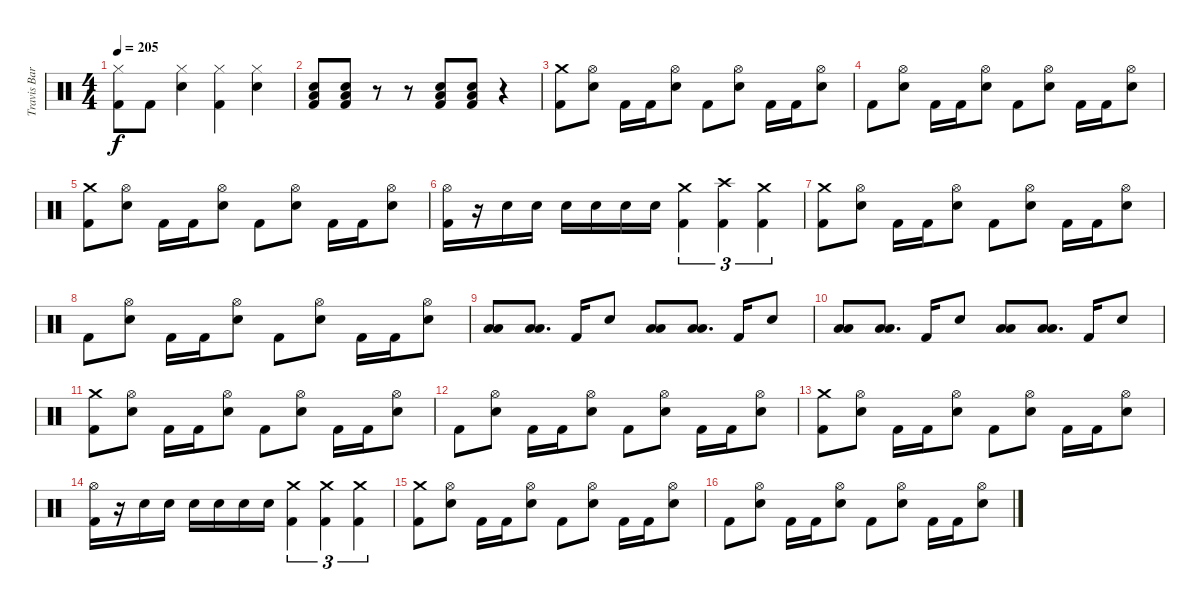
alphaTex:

\track ("Travis Barker (Drums)" "Travis Bar") {instrument percussion}
\staff {score}
\articulation defaults
\ts (4 4)
\tempo 205
\clef neutral
\ks c
("Hi-Hat (closed)" "Kick (hit) 2").8{dy f} "Kick (hit) 2".8 ("Hi-Hat (closed)" "Electric Snare (hit)").4 ("Hi-Hat (closed)" "Kick (hit) 2").4 ("Hi-Hat (closed)" "Electric Snare (hit)").4 |
("Low Floor Tom (hit)" "Electric Snare (hit)" "Kick (hit) 2").8 ("Low Floor Tom (hit)" "Electric Snare (hit)" "Kick (hit) 2").8 r.8 r.8 ("Low Floor Tom (hit)" "Electric Snare (hit)" "Kick (hit) 2").8 ("Low Floor Tom (hit)" "Electric Snare (hit)" "Kick (hit) 2").8 r.4 |
("Crash medium (hit)" "Kick (hit) 2").8 ("Hi-Hat (open)" "Electric Snare (hit)").8 "Kick (hit) 2".16 "Kick (hit) 2".16 ("Hi-Hat (open)" "Electric Snare (hit)").8 "Kick (hit) 2".8 ("Hi-Hat (open)" "Electric Snare (hit)").8 "Kick (hit) 2".16 "Kick (hit) 2".16 ("Hi-Hat (open)" "Electric Snare (hit)").8 |
"Kick (hit) 2".8 ("Hi-Hat (open)" "Electric Snare (hit)").8 "Kick (hit) 2".16 "Kick (hit) 2".16 ("Hi-Hat (open)" "Electric Snare (hit)").8 "Kick (hit) 2".8 ("Hi-Hat (open)" "Electric Snare (hit)").8 "Kick (hit) 2".16 "Kick (hit) 2".16 ("Hi-Hat (open)" "Electric Snare (hit)").8 |
("Crash medium (hit)" "Kick (hit) 2").8 ("Hi-Hat (open)" "Electric Snare (hit)").8 "Kick (hit) 2".16 "Kick (hit) 2".16 ("Hi-Hat (open)" "Electric Snare (hit)").8 "Kick (hit) 2".8 ("Hi-Hat (open)" "Electric Snare (hit)").8 "Kick (hit) 2".16 "Kick (hit) 2".16 ("Hi-Hat (open)" "Electric Snare (hit)").8 |
("Hi-Hat (open)" "Kick (hit) 2").16 r.16 "Electric Snare (hit)".16 "Electric Snare (hit)".16 "Electric Snare (hit)".16 "Electric Snare (hit)".16 "Electric Snare (hit)".16 "Electric Snare (hit)".16 ("Crash medium (hit)" "Kick (hit) 2").4{tu (3 2)} ("Crash high (hit)" "Kick (hit) 2").4{tu (3 2)} ("Crash medium (hit)" "Kick (hit) 2").4{tu (3 2)} |
("Crash medium (hit)" "Kick (hit) 2").8 ("Hi-Hat (open)" "Electric Snare (hit)").8 "Kick (hit) 2".16 "Kick (hit) 2".16 ("Hi-Hat (open)" "Electric Snare (hit)").8 "Kick (hit) 2".8 ("Hi-Hat (open)" "Electric Snare (hit)").8 "Kick (hit) 2".16 "Kick (hit) 2".16 ("Hi-Hat (open)" "Electric Snare (hit)").8 |
"Kick (hit) 2".8 ("Hi-Hat (open)" "Electric Snare (hit)").8 "Kick (hit) 2".16 "Kick (hit) 2".16 ("Hi-Hat (open)" "Electric Snare (hit)").8 "Kick (hit) 2".8 ("Hi-Hat (open)" "Electric Snare (hit)").8 "Kick (hit) 2".16 "Kick (hit) 2".16 ("Hi-Hat (open)" "Electric Snare (hit)").8 |
("Low Tom (hit)" "Low Tom (hit)").8 ("Low Floor Tom (hit)" "Low Floor Tom (hit)").8{d} "Kick (hit) 2".16 "Electric Snare (hit)".8 ("Low Tom (hit)" "Low Tom (hit)").8 ("Low Floor Tom (hit)" "Low Floor Tom (hit)").8{d} "Kick (hit) 2".16 "Electric Snare (hit)".8 |
("Low Tom (hit)" "Low Tom (hit)").8 ("Low Floor Tom (hit)" "Low Floor Tom (hit)").8{d} "Kick (hit) 2".16 "Electric Snare (hit)".8 ("Low Tom (hit)" "Low Tom (hit)").8 ("Low Floor Tom (hit)" "Low Floor Tom (hit)").8{d} "Kick (hit) 2".16 "Electric Snare (hit)".8 |
("Crash medium (hit)" "Kick (hit) 2").8 ("Hi-Hat (open)" "Electric Snare (hit)").8 "Kick (hit) 2".16 "Kick (hit) 2".16 ("Hi-Hat (open)" "Electric Snare (hit)").8 "Kick (hit) 2".8 ("Hi-Hat (open)" "Electric Snare (hit)").8 "Kick (hit) 2".16 "Kick (hit) 2".16 ("Hi-Hat (open)" "Electric Snare (hit)").8 |
"Kick (hit) 2".8 ("Hi-Hat (open)" "Electric Snare (hit)").8 "Kick (hit) 2".16 "Kick (hit) 2".16 ("Hi-Hat (open)" "Electric Snare (hit)").8 "Kick (hit) 2".8 ("Hi-Hat (open)" "Electric Snare (hit)").8 "Kick (hit) 2".16 "Kick (hit) 2".16 ("Hi-Hat (open)" "Electric Snare (hit)").8 |
("Crash medium (hit)" "Kick (hit) 2").8 ("Hi-Hat (open)" "Electric Snare (hit)").8 "Kick (hit) 2".16 "Kick (hit) 2".16 ("Hi-Hat (open)" "Electric Snare (hit)").8 "Kick (hit) 2".8 ("Hi-Hat (open)" "Electric Snare (hit)").8 "Kick (hit) 2".16 "Kick (hit) 2".16 ("Hi-Hat (open)" "Electric Snare (hit)").8 |
("Hi-Hat (open)" "Kick (hit) 2").16 r.16 "Electric Snare (hit)".16 "Electric Snare (hit)".16 "Electric Snare (hit)".16 "Electric Snare (hit)".16 "Electric Snare (hit)".16 "Electric Snare (hit)".16 ("Crash medium (hit)" "Kick (hit) 2").4{tu (3 2)} ("Crash medium (hit)" "Kick (hit) 2").4{tu (3 2)} ("Crash medium (hit)" "Kick (hit) 2").4{tu (3 2)} |
("Crash medium (hit)" "Kick (hit) 2").8 ("Hi-Hat (open)" "Electric Snare (hit)").8 "Kick (hit) 2".16 "Kick (hit) 2".16 ("Hi-Hat (open)" "Electric Snare (hit)").8 "Kick (hit) 2".8 ("Hi-Hat (open)" "Electric Snare (hit)").8 "Kick (hit) 2".16 "Kick (hit) 2".16 ("Hi-Hat (open)" "Electric Snare (hit)").8 |
"Kick (hit) 2".8 ("Hi-Hat (open)" "Electric Snare (hit)").8 "Kick (hit) 2".16 "Kick (hit) 2".16 ("Hi-Hat (open)" "Electric Snare (hit)").8 "Kick (hit) 2".8 ("Hi-Hat (open)" "Electric Snare (hit)").8 "Kick (hit) 2".16 "Kick (hit) 2".16 ("Hi-Hat (open)" "Electric Snare (hit)").8
